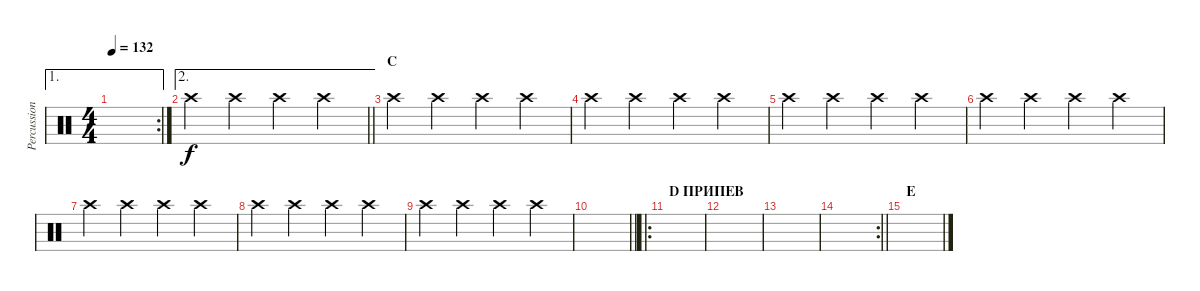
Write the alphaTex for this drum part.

\track ("Percussions" "Percussion") {instrument percussion}
\staff {score}
\articulation defaults
\ae 1
\rc 2
\ts (4 4)
\tempo 132
\clef neutral
\ks c
|
\ae 2
\barLineRight lightlight "Crash high (hit)".4 "Crash high (hit)".4 "Crash high (hit)".4 "Crash high (hit)".4
|
\section ("" "С")
"Crash high (hit)".4 "Crash high (hit)".4 "Crash high (hit)".4 "Crash high (hit)".4 |
"Crash high (hit)".4 "Crash high (hit)".4 "Crash high (hit)".4 "Crash high (hit)".4 |
"Crash high (hit)".4 "Crash high (hit)".4 "Crash high (hit)".4 "Crash high (hit)".4 |
"Crash high (hit)".4 "Crash high (hit)".4 "Crash high (hit)".4 "Crash high (hit)".4 |
"Crash high (hit)".4 "Crash high (hit)".4 "Crash high (hit)".4 "Crash high (hit)".4 |
"Crash high (hit)".4 "Crash high (hit)".4 "Crash high (hit)".4 "Crash high (hit)".4 |
"Crash high (hit)".4 "Crash high (hit)".4 "Crash high (hit)".4 "Crash high (hit)".4 |
\barLineRight lightlight
|
\ro
\section ("" "D ПРИПЕВ")
|
|
|
\rc 2
\barLineRight lightlight
|
\section ("" "E")
